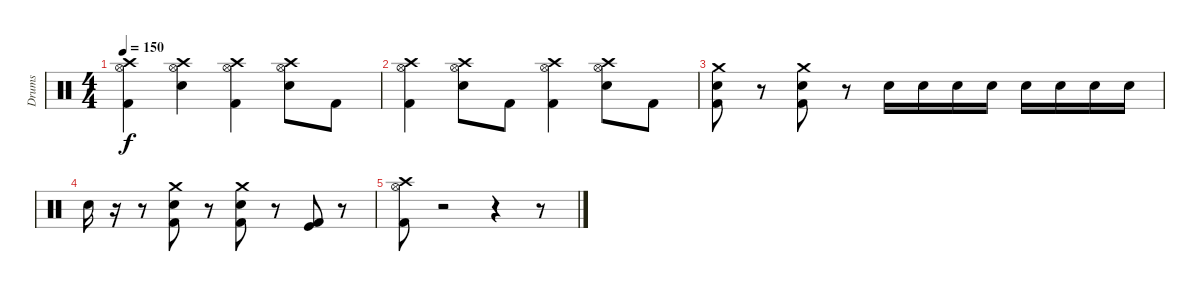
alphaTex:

\track ("Drums" "Drums") {instrument percussion}
\staff {score}
\articulation defaults
\ts (4 4)
\tempo 150
\clef neutral
\ks c
("Crash high (hit)" "Kick (hit) 2" "Hi-Hat (open)").4{dy f} ("Crash high (hit)" "Electric Snare (hit)" "Hi-Hat (open)").4 ("Crash high (hit)" "Kick (hit) 2" "Hi-Hat (open)").4 ("Crash high (hit)" "Electric Snare (hit)" "Hi-Hat (open)").8 "Kick (hit) 2".8 |
("Crash high (hit)" "Kick (hit) 2" "Hi-Hat (open)").4 ("Crash high (hit)" "Electric Snare (hit)" "Hi-Hat (open)").8 "Kick (hit) 2".8 ("Crash high (hit)" "Kick (hit) 2" "Hi-Hat (open)").4 ("Crash high (hit)" "Electric Snare (hit)" "Hi-Hat (open)").8 "Kick (hit) 2".8 |
("Crash medium (hit)" "Kick (hit) 2" "Electric Snare (hit)").8 r.8 ("Crash medium (hit)" "Kick (hit) 2" "Electric Snare (hit)").8 r.8 "Electric Snare (hit)".16 "Electric Snare (hit)".16 "Electric Snare (hit)".16 "Electric Snare (hit)".16 "Electric Snare (hit)".16 "Electric Snare (hit)".16 "Electric Snare (hit)".16 "Electric Snare (hit)".16 |
"Electric Snare (hit)".16 r.16 r.8 ("Crash medium (hit)" "Kick (hit) 2" "Electric Snare (hit)").8 r.8 ("Crash medium (hit)" "Kick (hit) 2" "Electric Snare (hit)").8 r.8 ("Kick (hit) 2" "Kick (hit)").8 r.8 |
("Crash high (hit)" "Kick (hit) 2" "Hi-Hat (open)").8 r.2 r.4 r.8
